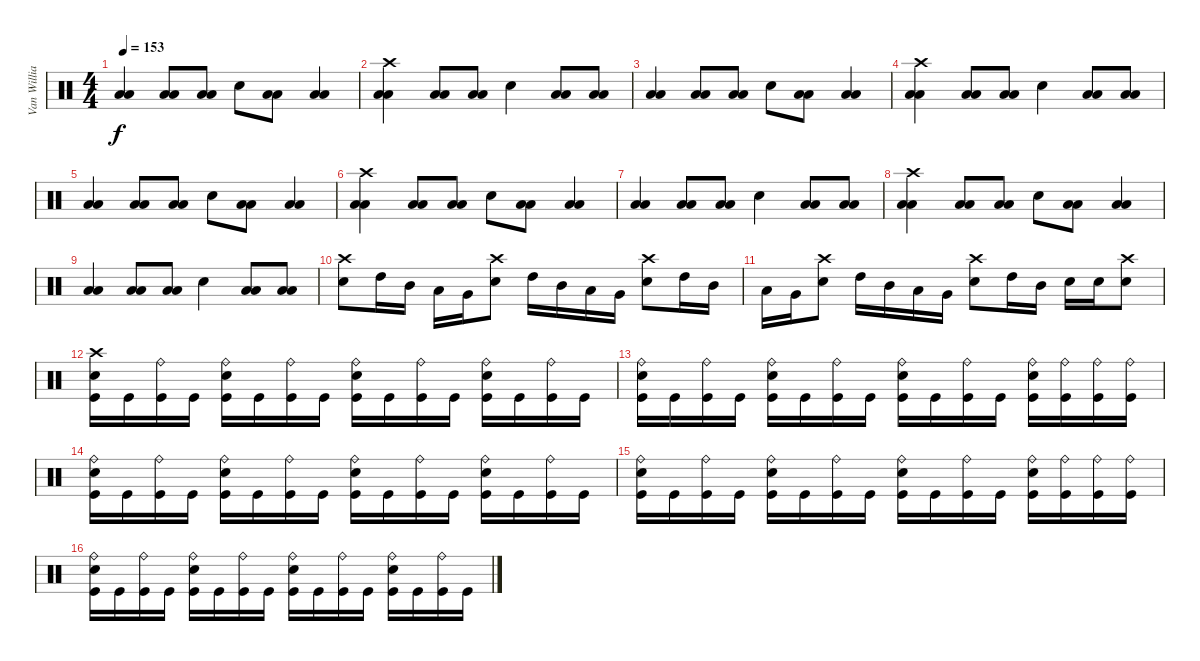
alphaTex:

\track ("Van Williams" "Van Willia") {instrument percussion}
\staff {score}
\articulation defaults
\ts (4 4)
\tempo 153
\clef neutral
\ks c
("Low Floor Tom (hit)" "Low Floor Tom (hit)").4{dy f} ("Low Floor Tom (hit)" "Low Floor Tom (hit)").8 ("Low Floor Tom (hit)" "Low Floor Tom (hit)").8 "Electric Snare (hit)".8 ("Low Floor Tom (hit)" "Low Floor Tom (hit)").8 ("Low Floor Tom (hit)" "Low Floor Tom (hit)").4 |
("Crash high (hit)" "Low Floor Tom (hit)" "Low Floor Tom (hit)").4 ("Low Floor Tom (hit)" "Low Floor Tom (hit)").8 ("Low Floor Tom (hit)" "Low Floor Tom (hit)").8 "Electric Snare (hit)".4 ("Low Floor Tom (hit)" "Low Floor Tom (hit)").8 ("Low Floor Tom (hit)" "Low Floor Tom (hit)").8 |
("Low Floor Tom (hit)" "Low Floor Tom (hit)").4 ("Low Floor Tom (hit)" "Low Floor Tom (hit)").8 ("Low Floor Tom (hit)" "Low Floor Tom (hit)").8 "Electric Snare (hit)".8 ("Low Floor Tom (hit)" "Low Floor Tom (hit)").8 ("Low Floor Tom (hit)" "Low Floor Tom (hit)").4 |
("Crash high (hit)" "Low Floor Tom (hit)" "Low Floor Tom (hit)").4 ("Low Floor Tom (hit)" "Low Floor Tom (hit)").8 ("Low Floor Tom (hit)" "Low Floor Tom (hit)").8 "Electric Snare (hit)".4 ("Low Floor Tom (hit)" "Low Floor Tom (hit)").8 ("Low Floor Tom (hit)" "Low Floor Tom (hit)").8 |
("Low Floor Tom (hit)" "Low Floor Tom (hit)").4 ("Low Floor Tom (hit)" "Low Floor Tom (hit)").8 ("Low Floor Tom (hit)" "Low Floor Tom (hit)").8 "Electric Snare (hit)".8 ("Low Floor Tom (hit)" "Low Floor Tom (hit)").8 ("Low Floor Tom (hit)" "Low Floor Tom (hit)").4 |
("Crash high (hit)" "Low Floor Tom (hit)" "Low Floor Tom (hit)").4 ("Low Floor Tom (hit)" "Low Floor Tom (hit)").8 ("Low Floor Tom (hit)" "Low Floor Tom (hit)").8 "Electric Snare (hit)".8 ("Low Floor Tom (hit)" "Low Floor Tom (hit)").8 ("Low Floor Tom (hit)" "Low Floor Tom (hit)").4 |
("Low Floor Tom (hit)" "Low Floor Tom (hit)").4 ("Low Floor Tom (hit)" "Low Floor Tom (hit)").8 ("Low Floor Tom (hit)" "Low Floor Tom (hit)").8 "Electric Snare (hit)".4 ("Low Floor Tom (hit)" "Low Floor Tom (hit)").8 ("Low Floor Tom (hit)" "Low Floor Tom (hit)").8 |
("Crash high (hit)" "Low Floor Tom (hit)" "Low Floor Tom (hit)").4 ("Low Floor Tom (hit)" "Low Floor Tom (hit)").8 ("Low Floor Tom (hit)" "Low Floor Tom (hit)").8 "Electric Snare (hit)".8 ("Low Floor Tom (hit)" "Low Floor Tom (hit)").8 ("Low Floor Tom (hit)" "Low Floor Tom (hit)").4 |
("Low Floor Tom (hit)" "Low Floor Tom (hit)").4 ("Low Floor Tom (hit)" "Low Floor Tom (hit)").8 ("Low Floor Tom (hit)" "Low Floor Tom (hit)").8 "Electric Snare (hit)".4 ("Low Floor Tom (hit)" "Low Floor Tom (hit)").8 ("Low Floor Tom (hit)" "Low Floor Tom (hit)").8 |
("Crash high (hit)" "Electric Snare (hit)").8 "High Tom (hit)".16 "Mid Tom (hit)".16 "Low Tom (hit)".16 "Very Low Tom (hit)".16 ("Crash high (hit)" "Electric Snare (hit)").8 "High Tom (hit)".16 "Mid Tom (hit)".16 "Low Tom (hit)".16 "Very Low Tom (hit)".16 ("Crash high (hit)" "Electric Snare (hit)").8 "High Tom (hit)".16 "Mid Tom (hit)".16 |
"Low Tom (hit)".16 "Very Low Tom (hit)".16 ("Crash high (hit)" "Electric Snare (hit)").8 "High Tom (hit)".16 "Mid Tom (hit)".16 "Low Tom (hit)".16 "Very Low Tom (hit)".16 ("Crash high (hit)" "Electric Snare (hit)").8 "High Tom (hit)".16 "Mid Tom (hit)".16 "Electric Snare (hit)".16 "Electric Snare (hit)".16 ("Crash high (hit)" "Electric Snare (hit)").8 |
("Crash high (hit)" "Electric Snare (hit)" "Kick (hit)").16 "Kick (hit)".16 ("Ride (bell)" "Kick (hit)").16 "Kick (hit)".16 ("Ride (bell)" "Electric Snare (hit)" "Kick (hit)").16 "Kick (hit)".16 ("Ride (bell)" "Kick (hit)").16 "Kick (hit)".16 ("Ride (bell)" "Electric Snare (hit)" "Kick (hit)").16 "Kick (hit)".16 ("Ride (bell)" "Kick (hit)").16 "Kick (hit)".16 ("Ride (bell)" "Electric Snare (hit)" "Kick (hit)").16 "Kick (hit)".16 ("Ride (bell)" "Kick (hit)").16 "Kick (hit)".16 |
("Ride (bell)" "Electric Snare (hit)" "Kick (hit)").16 "Kick (hit)".16 ("Ride (bell)" "Kick (hit)").16 "Kick (hit)".16 ("Ride (bell)" "Electric Snare (hit)" "Kick (hit)").16 "Kick (hit)".16 ("Ride (bell)" "Kick (hit)").16 "Kick (hit)".16 ("Ride (bell)" "Electric Snare (hit)" "Kick (hit)").16 "Kick (hit)".16 ("Ride (bell)" "Kick (hit)").16 "Kick (hit)".16 ("Ride (bell)" "Electric Snare (hit)" "Kick (hit)").16 ("Ride (bell)" "Kick (hit)").16 ("Ride (bell)" "Kick (hit)").16 ("Ride (bell)" "Kick (hit)").16 |
("Ride (bell)" "Electric Snare (hit)" "Kick (hit)").16 "Kick (hit)".16 ("Ride (bell)" "Kick (hit)").16 "Kick (hit)".16 ("Ride (bell)" "Electric Snare (hit)" "Kick (hit)").16 "Kick (hit)".16 ("Ride (bell)" "Kick (hit)").16 "Kick (hit)".16 ("Ride (bell)" "Electric Snare (hit)" "Kick (hit)").16 "Kick (hit)".16 ("Ride (bell)" "Kick (hit)").16 "Kick (hit)".16 ("Ride (bell)" "Electric Snare (hit)" "Kick (hit)").16 "Kick (hit)".16 ("Ride (bell)" "Kick (hit)").16 "Kick (hit)".16 |
("Ride (bell)" "Electric Snare (hit)" "Kick (hit)").16 "Kick (hit)".16 ("Ride (bell)" "Kick (hit)").16 "Kick (hit)".16 ("Ride (bell)" "Electric Snare (hit)" "Kick (hit)").16 "Kick (hit)".16 ("Ride (bell)" "Kick (hit)").16 "Kick (hit)".16 ("Ride (bell)" "Electric Snare (hit)" "Kick (hit)").16 "Kick (hit)".16 ("Ride (bell)" "Kick (hit)").16 "Kick (hit)".16 ("Ride (bell)" "Electric Snare (hit)" "Kick (hit)").16 ("Ride (bell)" "Kick (hit)").16 ("Ride (bell)" "Kick (hit)").16 ("Ride (bell)" "Kick (hit)").16 |
("Ride (bell)" "Electric Snare (hit)" "Kick (hit)").16 "Kick (hit)".16 ("Ride (bell)" "Kick (hit)").16 "Kick (hit)".16 ("Ride (bell)" "Electric Snare (hit)" "Kick (hit)").16 "Kick (hit)".16 ("Ride (bell)" "Kick (hit)").16 "Kick (hit)".16 ("Ride (bell)" "Electric Snare (hit)" "Kick (hit)").16 "Kick (hit)".16 ("Ride (bell)" "Kick (hit)").16 "Kick (hit)".16 ("Ride (bell)" "Electric Snare (hit)" "Kick (hit)").16 "Kick (hit)".16 ("Ride (bell)" "Kick (hit)").16 "Kick (hit)".16
